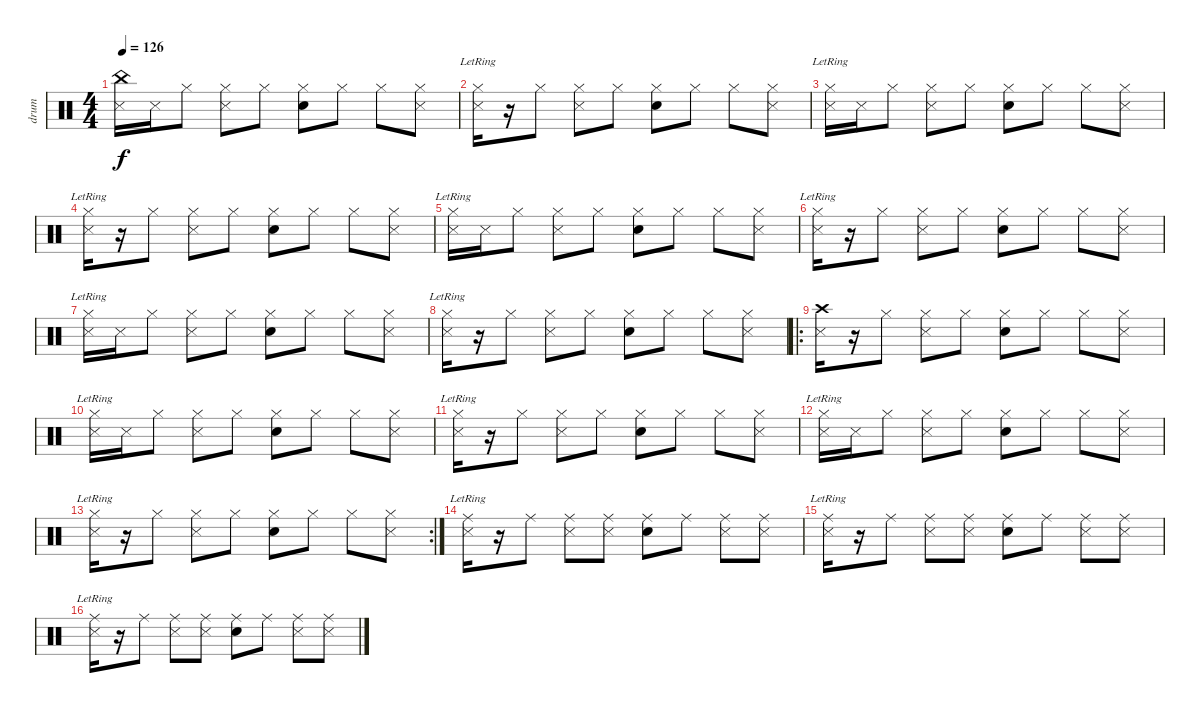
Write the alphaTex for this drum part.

\track ("drum" "drum") {instrument percussion}
\staff {score}
\articulation defaults
\ts (4 4)
\tempo 126
\clef neutral
\ks c
("Metronome (hit)" "China (hit)").16{dy f} "Metronome (hit)".16 "Hi-Hat (closed)".8 ("Hi-Hat (closed)" "Metronome (hit)").8 "Hi-Hat (closed)".8 ("Hi-Hat (closed)" "Snare (hit) 2").8 "Hi-Hat (closed)".8 "Hi-Hat (closed)".8 ("Hi-Hat (closed)" "Metronome (hit)").8 |
("Hi-Hat (closed)"{lr} "Metronome (hit)").16 r.16 "Hi-Hat (closed)".8 ("Hi-Hat (closed)" "Metronome (hit)").8 "Hi-Hat (closed)".8 ("Hi-Hat (closed)" "Snare (hit) 2").8 "Hi-Hat (closed)".8 "Hi-Hat (closed)".8 ("Hi-Hat (closed)" "Metronome (hit)").8 |
("Hi-Hat (closed)"{lr} "Metronome (hit)").16 "Metronome (hit)".16 "Hi-Hat (closed)".8 ("Hi-Hat (closed)" "Metronome (hit)").8 "Hi-Hat (closed)".8 ("Hi-Hat (closed)" "Snare (hit) 2").8 "Hi-Hat (closed)".8 "Hi-Hat (closed)".8 ("Hi-Hat (closed)" "Metronome (hit)").8 |
("Hi-Hat (closed)"{lr} "Metronome (hit)").16 r.16 "Hi-Hat (closed)".8 ("Hi-Hat (closed)" "Metronome (hit)").8 "Hi-Hat (closed)".8 ("Hi-Hat (closed)" "Snare (hit) 2").8 "Hi-Hat (closed)".8 "Hi-Hat (closed)".8 ("Hi-Hat (closed)" "Metronome (hit)").8 |
("Hi-Hat (closed)"{lr} "Metronome (hit)").16 "Metronome (hit)".16 "Hi-Hat (closed)".8 ("Hi-Hat (closed)" "Metronome (hit)").8 "Hi-Hat (closed)".8 ("Hi-Hat (closed)" "Snare (hit) 2").8 "Hi-Hat (closed)".8 "Hi-Hat (closed)".8 ("Hi-Hat (closed)" "Metronome (hit)").8 |
("Hi-Hat (closed)"{lr} "Metronome (hit)").16 r.16 "Hi-Hat (closed)".8 ("Hi-Hat (closed)" "Metronome (hit)").8 "Hi-Hat (closed)".8 ("Hi-Hat (closed)" "Snare (hit) 2").8 "Hi-Hat (closed)".8 "Hi-Hat (closed)".8 ("Hi-Hat (closed)" "Metronome (hit)").8 |
("Hi-Hat (closed)"{lr} "Metronome (hit)").16 "Metronome (hit)".16 "Hi-Hat (closed)".8 ("Hi-Hat (closed)" "Metronome (hit)").8 "Hi-Hat (closed)".8 ("Hi-Hat (closed)" "Snare (hit) 2").8 "Hi-Hat (closed)".8 "Hi-Hat (closed)".8 ("Hi-Hat (closed)" "Metronome (hit)").8 |
("Hi-Hat (closed)"{lr} "Metronome (hit)").16 r.16 "Hi-Hat (closed)".8 ("Hi-Hat (closed)" "Metronome (hit)").8 "Hi-Hat (closed)".8 ("Hi-Hat (closed)" "Snare (hit) 2").8 "Hi-Hat (closed)".8 "Hi-Hat (closed)".8 ("Hi-Hat (closed)" "Metronome (hit)").8 |
\ro
("Metronome (hit)" "Crash high (hit)").16 r.16 "Hi-Hat (closed)".8 ("Hi-Hat (closed)" "Metronome (hit)").8 "Hi-Hat (closed)".8 ("Hi-Hat (closed)" "Snare (hit) 2").8 "Hi-Hat (closed)".8 "Hi-Hat (closed)".8 ("Hi-Hat (closed)" "Metronome (hit)").8 |
("Hi-Hat (closed)"{lr} "Metronome (hit)").16 "Metronome (hit)".16 "Hi-Hat (closed)".8 ("Hi-Hat (closed)" "Metronome (hit)").8 "Hi-Hat (closed)".8 ("Hi-Hat (closed)" "Snare (hit) 2").8 "Hi-Hat (closed)".8 "Hi-Hat (closed)".8 ("Hi-Hat (closed)" "Metronome (hit)").8 |
("Hi-Hat (closed)"{lr} "Metronome (hit)").16 r.16 "Hi-Hat (closed)".8 ("Hi-Hat (closed)" "Metronome (hit)").8 "Hi-Hat (closed)".8 ("Hi-Hat (closed)" "Snare (hit) 2").8 "Hi-Hat (closed)".8 "Hi-Hat (closed)".8 ("Hi-Hat (closed)" "Metronome (hit)").8 |
("Hi-Hat (closed)"{lr} "Metronome (hit)").16 "Metronome (hit)".16 "Hi-Hat (closed)".8 ("Hi-Hat (closed)" "Metronome (hit)").8 "Hi-Hat (closed)".8 ("Hi-Hat (closed)" "Snare (hit) 2").8 "Hi-Hat (closed)".8 "Hi-Hat (closed)".8 ("Hi-Hat (closed)" "Metronome (hit)").8 |
\rc 2
("Hi-Hat (closed)"{lr} "Metronome (hit)").16 r.16 "Hi-Hat (closed)".8 ("Hi-Hat (closed)" "Metronome (hit)").8 "Hi-Hat (closed)".8 ("Hi-Hat (closed)" "Snare (hit) 2").8 "Hi-Hat (closed)".8 "Hi-Hat (closed)".8 ("Hi-Hat (closed)" "Metronome (hit)").8 |
("Ride (middle)"{lr} "Metronome (hit)").16 r.16 "Ride (middle)".8 ("Ride (middle)" "Metronome (hit)").8 ("Ride (middle)" "Metronome (hit)").8 ("Ride (middle)" "Snare (hit) 2").8 "Ride (middle)".8 ("Ride (middle)" "Metronome (hit)").8 ("Ride (middle)" "Metronome (hit)").8 |
("Ride (middle)"{lr} "Metronome (hit)").16 r.16 "Ride (middle)".8 ("Ride (middle)" "Metronome (hit)").8 ("Ride (middle)" "Metronome (hit)").8 ("Ride (middle)" "Snare (hit) 2").8 "Ride (middle)".8 ("Ride (middle)" "Metronome (hit)").8 ("Ride (middle)" "Metronome (hit)").8 |
("Ride (middle)"{lr} "Metronome (hit)").16 r.16 "Ride (middle)".8 ("Ride (middle)" "Metronome (hit)").8 ("Ride (middle)" "Metronome (hit)").8 ("Ride (middle)" "Snare (hit) 2").8 "Ride (middle)".8 ("Ride (middle)" "Metronome (hit)").8 ("Ride (middle)" "Metronome (hit)").8
